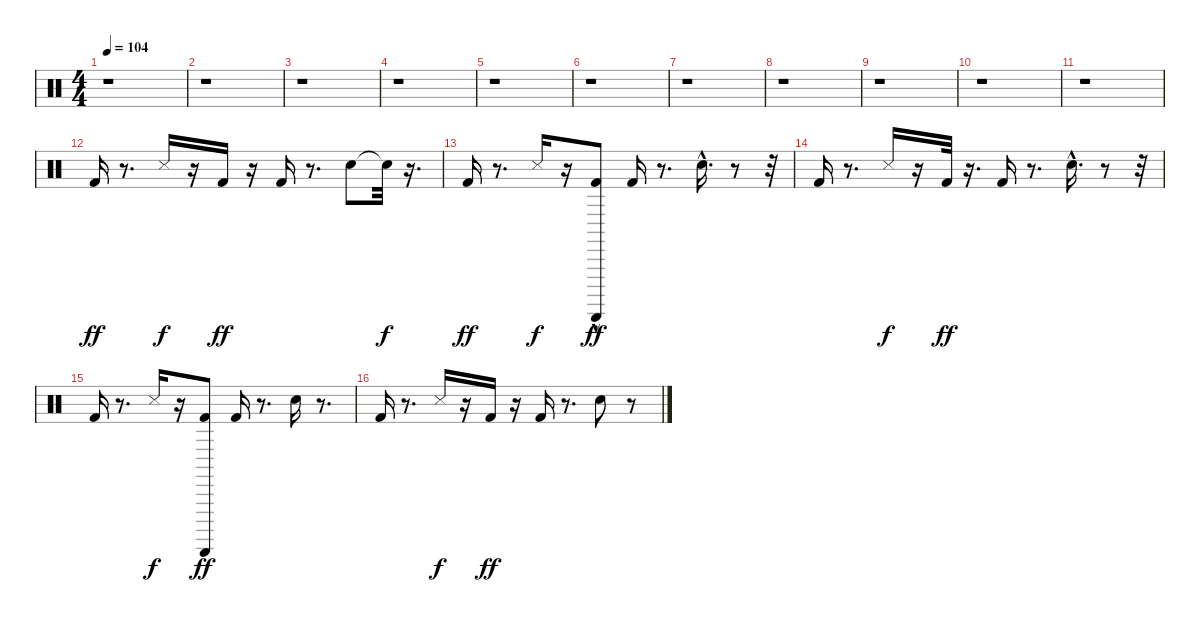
\track "" {instrument percussion}
\staff {score}
\articulation defaults
\ts (4 4)
\tempo 104
\clef neutral
\ks c
r.1{dy ff} |
r.1 |
r.1 |
r.1 |
r.1 |
r.1 |
r.1 |
r.1 |
r.1 |
r.1 |
r.1 |
"Kick (hit) 2".16 r.8{d} "Snare (side stick) 3".16{dy f} r.16 "Kick (hit) 2".16{dy ff} r.16 "Kick (hit) 2".16 r.8{d} "Snare (hit) 2".8 "Snare (hit)"{t}.32{dy f} r.16{d} |
"Kick (hit) 2".16{dy ff} r.8{d} "Snare (side stick) 3".16{dy f} r.16 ("Kick (hit) 2" "Guiro (scrap-return)"{hac}).8{dy ff} "Kick (hit) 2".16 r.8{d} "Snare (hit) 2"{hac}.16{d} r.8 r.32 |
"Kick (hit) 2".16 r.8{d} "Snare (side stick) 3".16{dy f} r.16 "Kick (hit) 2".32{dy ff} r.16{d} "Kick (hit) 2".16 r.8{d} "Snare (hit) 2"{hac}.16{d} r.8 r.32 |
"Kick (hit) 2".16 r.8{d} "Snare (side stick) 3".16{dy f} r.16 ("Kick (hit) 2" "Guiro (scrap-return)").8{dy ff} "Kick (hit) 2".16 r.8{d} "Snare (hit) 2".16 r.8{d} |
"Kick (hit) 2".16 r.8{d} "Snare (side stick) 3".16{dy f} r.16 "Kick (hit) 2".16{dy ff} r.16 "Kick (hit) 2".16 r.8{d} "Snare (hit) 2".8 r.8
